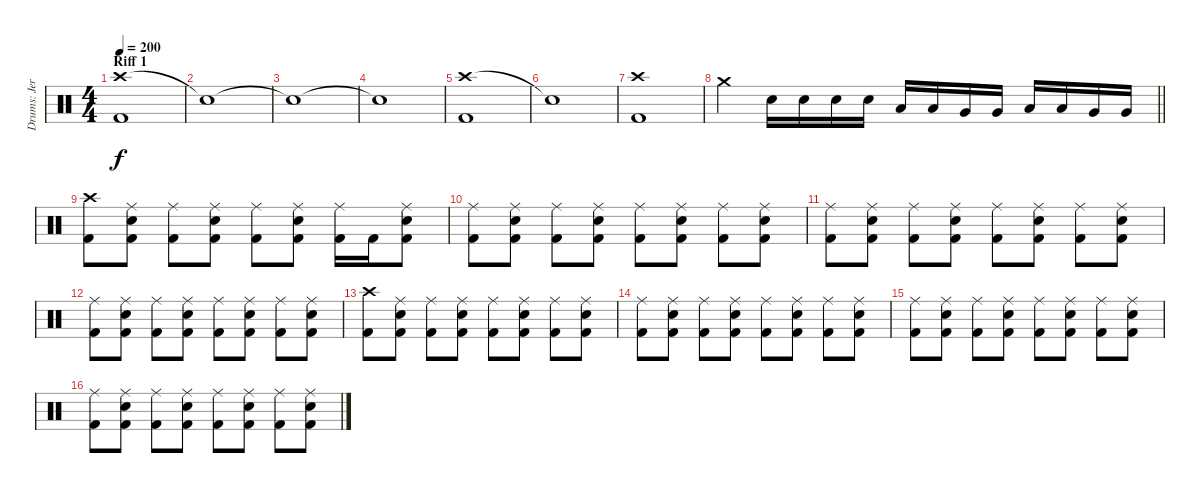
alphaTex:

\track ("Drums: Jere Luokkamäki" "Drums: Jer") {instrument percussion}
\staff {score}
\articulation defaults
\ts (4 4)
\section ("" "Riff 1")
\tempo 200
\clef neutral
\ks aminor
("Crash high (hit)" "Kick (hit) 2").1{dy f} |
"Snare (hit)"{t}.1 |
"Snare (hit)"{t}.1 |
"Snare (hit)"{t}.1 |
("Crash high (hit)" "Kick (hit) 2").1 |
"Snare (hit)"{t}.1 |
("Crash high (hit)" "Kick (hit) 2").1 |
\barLineRight lightlight "Crash medium (hit)".4 "Electric Snare (hit)".16 "Electric Snare (hit)".16 "Electric Snare (hit)".16 "Electric Snare (hit)".16 "Low Tom (hit)".16 "Low Tom (hit)".16 "Very Low Tom (hit)".16 "Very Low Tom (hit)".16 "Low Tom (hit)".16 "Low Tom (hit)".16 "Very Low Tom (hit)".16 "Very Low Tom (hit)".16
|
("Crash high (hit)" "Kick (hit) 2").8 ("Ride (middle)" "Electric Snare (hit)" "Kick (hit) 2").8 ("Ride (middle)" "Kick (hit) 2").8 ("Ride (middle)" "Electric Snare (hit)" "Kick (hit) 2").8 ("Ride (middle)" "Kick (hit) 2").8 ("Ride (middle)" "Electric Snare (hit)" "Kick (hit) 2").8 ("Ride (middle)" "Kick (hit) 2").16 "Kick (hit) 2".16 ("Ride (middle)" "Electric Snare (hit)" "Kick (hit) 2").8 |
("Ride (middle)" "Kick (hit) 2").8 ("Ride (middle)" "Electric Snare (hit)" "Kick (hit) 2").8 ("Ride (middle)" "Kick (hit) 2").8 ("Ride (middle)" "Electric Snare (hit)" "Kick (hit) 2").8 ("Ride (middle)" "Kick (hit) 2").8 ("Ride (middle)" "Electric Snare (hit)" "Kick (hit) 2").8 ("Ride (middle)" "Kick (hit) 2").8 ("Ride (middle)" "Electric Snare (hit)" "Kick (hit) 2").8 |
("Ride (middle)" "Kick (hit) 2").8 ("Ride (middle)" "Electric Snare (hit)" "Kick (hit) 2").8 ("Ride (middle)" "Kick (hit) 2").8 ("Ride (middle)" "Electric Snare (hit)" "Kick (hit) 2").8 ("Ride (middle)" "Kick (hit) 2").8 ("Ride (middle)" "Electric Snare (hit)" "Kick (hit) 2").8 ("Ride (middle)" "Kick (hit) 2").8 ("Ride (middle)" "Electric Snare (hit)" "Kick (hit) 2").8 |
("Ride (middle)" "Kick (hit) 2").8 ("Ride (middle)" "Electric Snare (hit)" "Kick (hit) 2").8 ("Ride (middle)" "Kick (hit) 2").8 ("Ride (middle)" "Electric Snare (hit)" "Kick (hit) 2").8 ("Ride (middle)" "Kick (hit) 2").8 ("Ride (middle)" "Electric Snare (hit)" "Kick (hit) 2").8 ("Ride (middle)" "Kick (hit) 2").8 ("Ride (middle)" "Electric Snare (hit)" "Kick (hit) 2").8 |
("Crash high (hit)" "Kick (hit) 2").8 ("Ride (middle)" "Electric Snare (hit)" "Kick (hit) 2").8 ("Ride (middle)" "Kick (hit) 2").8 ("Ride (middle)" "Electric Snare (hit)" "Kick (hit) 2").8 ("Ride (middle)" "Kick (hit) 2").8 ("Ride (middle)" "Electric Snare (hit)" "Kick (hit) 2").8 ("Ride (middle)" "Kick (hit) 2").8 ("Ride (middle)" "Electric Snare (hit)" "Kick (hit) 2").8 |
("Ride (middle)" "Kick (hit) 2").8 ("Ride (middle)" "Electric Snare (hit)" "Kick (hit) 2").8 ("Ride (middle)" "Kick (hit) 2").8 ("Ride (middle)" "Electric Snare (hit)" "Kick (hit) 2").8 ("Ride (middle)" "Kick (hit) 2").8 ("Ride (middle)" "Electric Snare (hit)" "Kick (hit) 2").8 ("Ride (middle)" "Kick (hit) 2").8 ("Ride (middle)" "Electric Snare (hit)" "Kick (hit) 2").8 |
("Ride (middle)" "Kick (hit) 2").8 ("Ride (middle)" "Electric Snare (hit)" "Kick (hit) 2").8 ("Ride (middle)" "Kick (hit) 2").8 ("Ride (middle)" "Electric Snare (hit)" "Kick (hit) 2").8 ("Ride (middle)" "Kick (hit) 2").8 ("Ride (middle)" "Electric Snare (hit)" "Kick (hit) 2").8 ("Ride (middle)" "Kick (hit) 2").8 ("Ride (middle)" "Electric Snare (hit)" "Kick (hit) 2").8 |
("Ride (middle)" "Kick (hit) 2").8 ("Ride (middle)" "Electric Snare (hit)" "Kick (hit) 2").8 ("Ride (middle)" "Kick (hit) 2").8 ("Ride (middle)" "Electric Snare (hit)" "Kick (hit) 2").8 ("Ride (middle)" "Kick (hit) 2").8 ("Ride (middle)" "Electric Snare (hit)" "Kick (hit) 2").8 ("Ride (middle)" "Kick (hit) 2").8 ("Ride (middle)" "Electric Snare (hit)" "Kick (hit) 2").8
